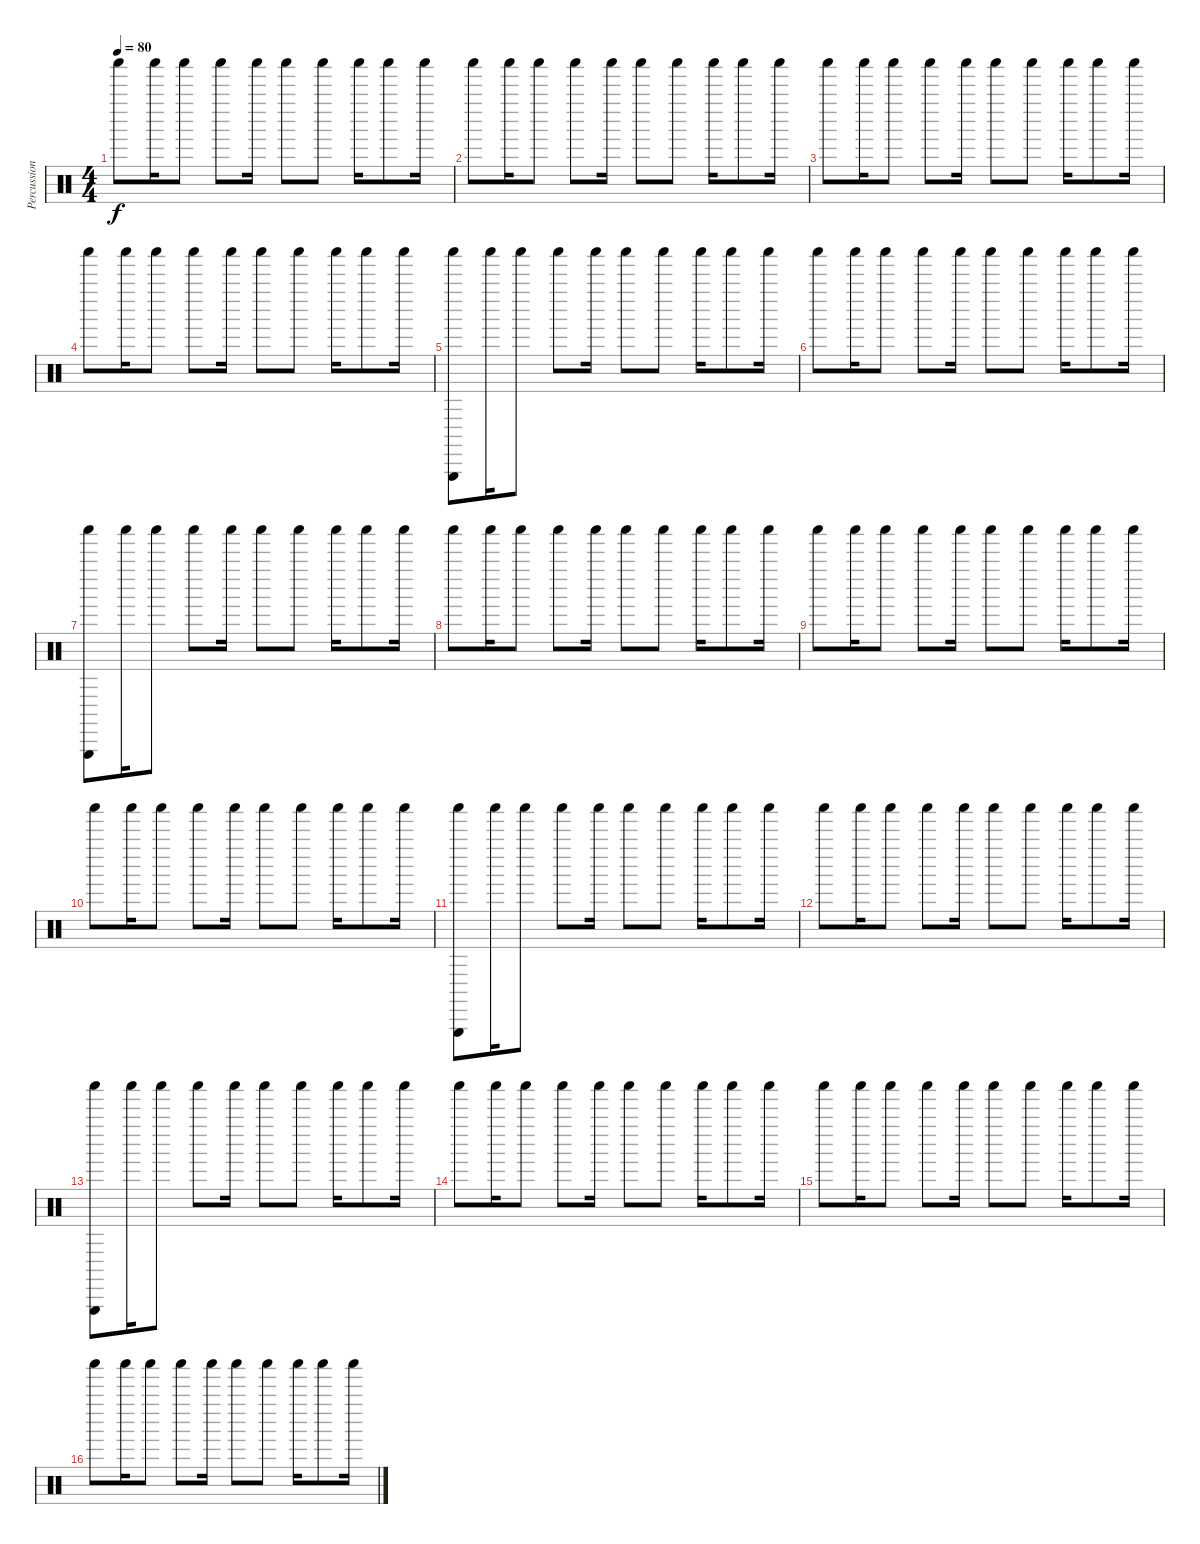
\track ("Percussion" "Percussion") {instrument percussion}
\staff {score}
\articulation defaults
\ts (4 4)
\tempo 80
\clef neutral
\ks c "Shaker (hit)".8{dy f} "Shaker (hit)".16 "Shaker (hit)".8 "Shaker (hit)".8 "Shaker (hit)".16 "Shaker (hit)".8 "Shaker (hit)".8 "Shaker (hit)".16 "Shaker (hit)".8 "Shaker (hit)".16
|
"Shaker (hit)".8 "Shaker (hit)".16 "Shaker (hit)".8 "Shaker (hit)".8 "Shaker (hit)".16 "Shaker (hit)".8 "Shaker (hit)".8 "Shaker (hit)".16 "Shaker (hit)".8 "Shaker (hit)".16 |
"Shaker (hit)".8 "Shaker (hit)".16 "Shaker (hit)".8 "Shaker (hit)".8 "Shaker (hit)".16 "Shaker (hit)".8 "Shaker (hit)".8 "Shaker (hit)".16 "Shaker (hit)".8 "Shaker (hit)".16 |
"Shaker (hit)".8 "Shaker (hit)".16 "Shaker (hit)".8 "Shaker (hit)".8 "Shaker (hit)".16 "Shaker (hit)".8 "Shaker (hit)".8 "Shaker (hit)".16 "Shaker (hit)".8 "Shaker (hit)".16 |
("Shaker (hit)" "Triangle (hit)").8 "Shaker (hit)".16 "Shaker (hit)".8 "Shaker (hit)".8 "Shaker (hit)".16 "Shaker (hit)".8 "Shaker (hit)".8 "Shaker (hit)".16 "Shaker (hit)".8 "Shaker (hit)".16 |
"Shaker (hit)".8 "Shaker (hit)".16 "Shaker (hit)".8 "Shaker (hit)".8 "Shaker (hit)".16 "Shaker (hit)".8 "Shaker (hit)".8 "Shaker (hit)".16 "Shaker (hit)".8 "Shaker (hit)".16 |
("Shaker (hit)" "Triangle (hit)").8 "Shaker (hit)".16 "Shaker (hit)".8 "Shaker (hit)".8 "Shaker (hit)".16 "Shaker (hit)".8 "Shaker (hit)".8 "Shaker (hit)".16 "Shaker (hit)".8 "Shaker (hit)".16 |
"Shaker (hit)".8 "Shaker (hit)".16 "Shaker (hit)".8 "Shaker (hit)".8 "Shaker (hit)".16 "Shaker (hit)".8 "Shaker (hit)".8 "Shaker (hit)".16 "Shaker (hit)".8 "Shaker (hit)".16 |
"Shaker (hit)".8 "Shaker (hit)".16 "Shaker (hit)".8 "Shaker (hit)".8 "Shaker (hit)".16 "Shaker (hit)".8 "Shaker (hit)".8 "Shaker (hit)".16 "Shaker (hit)".8 "Shaker (hit)".16 |
"Shaker (hit)".8 "Shaker (hit)".16 "Shaker (hit)".8 "Shaker (hit)".8 "Shaker (hit)".16 "Shaker (hit)".8 "Shaker (hit)".8 "Shaker (hit)".16 "Shaker (hit)".8 "Shaker (hit)".16 |
("Shaker (hit)" "Triangle (hit)").8 "Shaker (hit)".16 "Shaker (hit)".8 "Shaker (hit)".8 "Shaker (hit)".16 "Shaker (hit)".8 "Shaker (hit)".8 "Shaker (hit)".16 "Shaker (hit)".8 "Shaker (hit)".16 |
"Shaker (hit)".8 "Shaker (hit)".16 "Shaker (hit)".8 "Shaker (hit)".8 "Shaker (hit)".16 "Shaker (hit)".8 "Shaker (hit)".8 "Shaker (hit)".16 "Shaker (hit)".8 "Shaker (hit)".16 |
("Shaker (hit)" "Triangle (hit)").8 "Shaker (hit)".16 "Shaker (hit)".8 "Shaker (hit)".8 "Shaker (hit)".16 "Shaker (hit)".8 "Shaker (hit)".8 "Shaker (hit)".16 "Shaker (hit)".8 "Shaker (hit)".16 |
"Shaker (hit)".8 "Shaker (hit)".16 "Shaker (hit)".8 "Shaker (hit)".8 "Shaker (hit)".16 "Shaker (hit)".8 "Shaker (hit)".8 "Shaker (hit)".16 "Shaker (hit)".8 "Shaker (hit)".16 |
"Shaker (hit)".8 "Shaker (hit)".16 "Shaker (hit)".8 "Shaker (hit)".8 "Shaker (hit)".16 "Shaker (hit)".8 "Shaker (hit)".8 "Shaker (hit)".16 "Shaker (hit)".8 "Shaker (hit)".16 |
"Shaker (hit)".8 "Shaker (hit)".16 "Shaker (hit)".8 "Shaker (hit)".8 "Shaker (hit)".16 "Shaker (hit)".8 "Shaker (hit)".8 "Shaker (hit)".16 "Shaker (hit)".8 "Shaker (hit)".16
